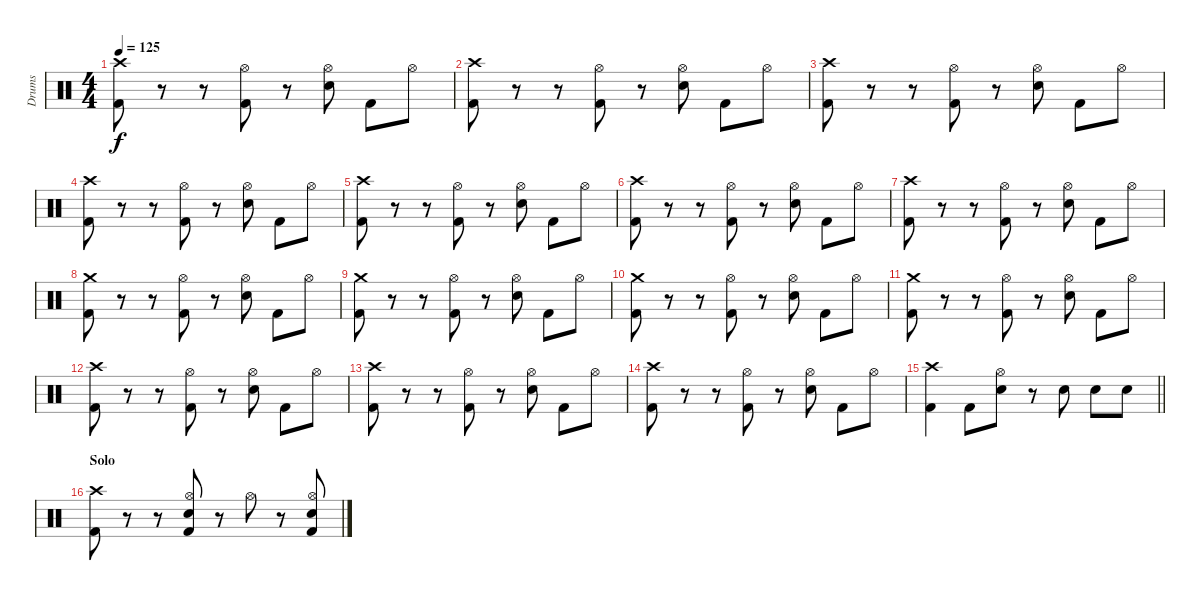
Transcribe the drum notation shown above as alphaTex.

\track ("Drums" "Drums") {instrument percussion}
\staff {score}
\articulation defaults
\ts (4 4)
\tempo 125
\clef neutral
\ks c
("Crash high (hit)" "Kick (hit) 2").8{dy f} r.8 r.8 ("Hi-Hat (open)" "Kick (hit) 2").8 r.8 ("Hi-Hat (open)" "Snare (hit) 2").8 "Kick (hit) 2".8 "Hi-Hat (open)".8 |
("Crash high (hit)" "Kick (hit) 2").8 r.8 r.8 ("Hi-Hat (open)" "Kick (hit) 2").8 r.8 ("Hi-Hat (open)" "Snare (hit) 2").8 "Kick (hit) 2".8 "Hi-Hat (open)".8 |
("Crash high (hit)" "Kick (hit) 2").8 r.8 r.8 ("Hi-Hat (open)" "Kick (hit) 2").8 r.8 ("Hi-Hat (open)" "Snare (hit) 2").8 "Kick (hit) 2".8 "Hi-Hat (open)".8 |
("Crash high (hit)" "Kick (hit) 2").8 r.8 r.8 ("Hi-Hat (open)" "Kick (hit) 2").8 r.8 ("Hi-Hat (open)" "Snare (hit) 2").8 "Kick (hit) 2".8 "Hi-Hat (open)".8 |
("Crash high (hit)" "Kick (hit) 2").8 r.8 r.8 ("Hi-Hat (open)" "Kick (hit) 2").8 r.8 ("Hi-Hat (open)" "Snare (hit) 2").8 "Kick (hit) 2".8 "Hi-Hat (open)".8 |
("Crash high (hit)" "Kick (hit) 2").8 r.8 r.8 ("Hi-Hat (open)" "Kick (hit) 2").8 r.8 ("Hi-Hat (open)" "Snare (hit) 2").8 "Kick (hit) 2".8 "Hi-Hat (open)".8 |
("Crash high (hit)" "Kick (hit) 2").8 r.8 r.8 ("Hi-Hat (open)" "Kick (hit) 2").8 r.8 ("Hi-Hat (open)" "Snare (hit) 2").8 "Kick (hit) 2".8 "Hi-Hat (open)".8 |
("Crash medium (hit)" "Kick (hit) 2").8 r.8 r.8 ("Hi-Hat (open)" "Kick (hit) 2").8 r.8 ("Hi-Hat (open)" "Snare (hit) 2").8 "Kick (hit) 2".8 "Hi-Hat (open)".8 |
("Crash medium (hit)" "Kick (hit) 2").8 r.8 r.8 ("Hi-Hat (open)" "Kick (hit) 2").8 r.8 ("Hi-Hat (open)" "Snare (hit) 2").8 "Kick (hit) 2".8 "Hi-Hat (open)".8 |
("Crash medium (hit)" "Kick (hit) 2").8 r.8 r.8 ("Hi-Hat (open)" "Kick (hit) 2").8 r.8 ("Hi-Hat (open)" "Snare (hit) 2").8 "Kick (hit) 2".8 "Hi-Hat (open)".8 |
("Crash medium (hit)" "Kick (hit) 2").8 r.8 r.8 ("Hi-Hat (open)" "Kick (hit) 2").8 r.8 ("Hi-Hat (open)" "Snare (hit) 2").8 "Kick (hit) 2".8 "Hi-Hat (open)".8 |
("Crash high (hit)" "Kick (hit) 2").8 r.8 r.8 ("Hi-Hat (open)" "Kick (hit) 2").8 r.8 ("Hi-Hat (open)" "Snare (hit) 2").8 "Kick (hit) 2".8 "Hi-Hat (open)".8 |
("Crash high (hit)" "Kick (hit) 2").8 r.8 r.8 ("Hi-Hat (open)" "Kick (hit) 2").8 r.8 ("Hi-Hat (open)" "Snare (hit) 2").8 "Kick (hit) 2".8 "Hi-Hat (open)".8 |
("Crash high (hit)" "Kick (hit) 2").8 r.8 r.8 ("Hi-Hat (open)" "Kick (hit) 2").8 r.8 ("Hi-Hat (open)" "Snare (hit) 2").8 "Kick (hit) 2".8 "Hi-Hat (open)".8 |
\barLineRight lightlight
("Crash high (hit)" "Kick (hit) 2").4 "Kick (hit) 2".8 ("Hi-Hat (open)" "Snare (hit) 2").8 r.8 "Snare (hit) 2".8 "Snare (hit) 2".8 "Snare (hit) 2".8 |
\section ("" "Solo")
("Crash high (hit)" "Kick (hit) 2").8 r.8 r.8 ("Hi-Hat (open)" "Snare (hit) 2" "Kick (hit) 2").8 r.8 "Hi-Hat (open)".8 r.8 ("Hi-Hat (open)" "Snare (hit) 2" "Kick (hit) 2").8
